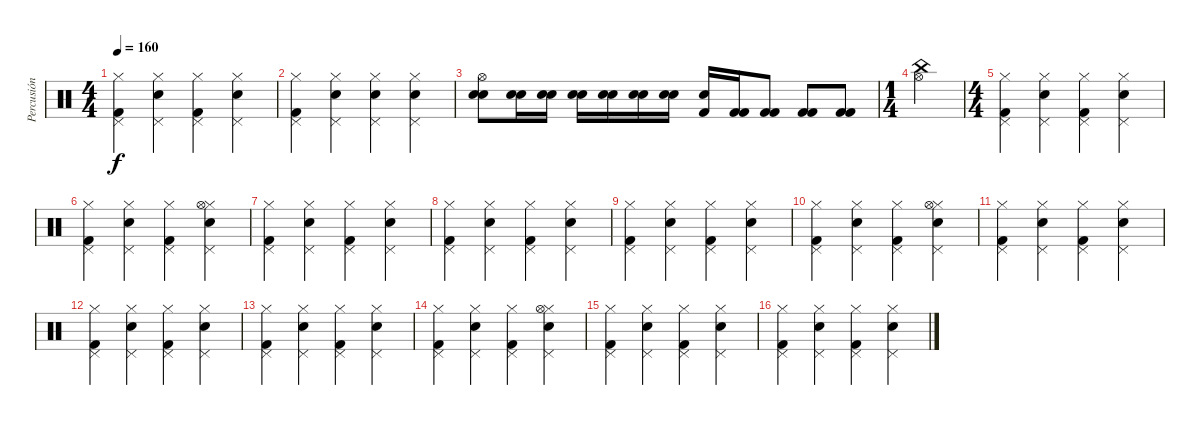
\track ("Percusión" "Percusión") {instrument percussion}
\staff {score}
\articulation defaults
\ts (4 4)
\tempo 160
\clef neutral
\ks c
("Hi-Hat (closed)" "Kick (hit) 2" "Pedal Hi-Hat (hit)").4{dy f} ("Hi-Hat (closed)" "Snare (hit) 2" "Pedal Hi-Hat (hit)").4 ("Hi-Hat (closed)" "Kick (hit) 2" "Pedal Hi-Hat (hit)").4 ("Hi-Hat (closed)" "Snare (hit) 2" "Pedal Hi-Hat (hit)").4 |
("Hi-Hat (closed)" "Kick (hit) 2" "Pedal Hi-Hat (hit)").4 ("Hi-Hat (closed)" "Snare (hit) 2" "Pedal Hi-Hat (hit)").4 ("Hi-Hat (closed)" "Snare (hit) 2" "Pedal Hi-Hat (hit)").4 ("Hi-Hat (closed)" "Snare (hit) 2" "Pedal Hi-Hat (hit)").4 |
("Hi-Hat (open)" "Electric Snare (hit)" "Electric Snare (hit)").8 ("Electric Snare (hit)" "Electric Snare (hit)").16 ("Electric Snare (hit)" "Electric Snare (hit)").16 ("Electric Snare (hit)" "Electric Snare (hit)").16 ("Electric Snare (hit)" "Electric Snare (hit)").16 ("Snare (hit) 2" "Snare (hit) 2").16 ("Snare (hit) 2" "Snare (hit) 2").16 ("Snare (hit) 2" "Kick (hit) 2").16 ("Kick (hit) 2" "Kick (hit) 2").16 ("Kick (hit) 2" "Kick (hit) 2").8 ("Kick (hit) 2" "Kick (hit) 2").8 ("Kick (hit) 2" "Kick (hit) 2").8 |
\ts (1 4)
("Hi-Hat (open)" "China (hit)").4 |
\ts (4 4)
("Hi-Hat (closed)" "Kick (hit) 2" "Pedal Hi-Hat (hit)").4 ("Hi-Hat (closed)" "Snare (hit) 2" "Pedal Hi-Hat (hit)").4 ("Hi-Hat (closed)" "Kick (hit) 2" "Pedal Hi-Hat (hit)").4 ("Hi-Hat (closed)" "Snare (hit) 2" "Pedal Hi-Hat (hit)").4 |
("Hi-Hat (closed)" "Kick (hit) 2" "Pedal Hi-Hat (hit)").4 ("Hi-Hat (closed)" "Snare (hit) 2" "Pedal Hi-Hat (hit)").4 ("Hi-Hat (closed)" "Kick (hit) 2" "Pedal Hi-Hat (hit)").4 ("Hi-Hat (closed)" "Snare (hit) 2" "Pedal Hi-Hat (hit)" "Hi-Hat (open)").4 |
("Hi-Hat (closed)" "Kick (hit) 2" "Pedal Hi-Hat (hit)").4 ("Hi-Hat (closed)" "Snare (hit) 2" "Pedal Hi-Hat (hit)").4 ("Hi-Hat (closed)" "Kick (hit) 2" "Pedal Hi-Hat (hit)").4 ("Hi-Hat (closed)" "Snare (hit) 2" "Pedal Hi-Hat (hit)").4 |
("Hi-Hat (closed)" "Kick (hit) 2" "Pedal Hi-Hat (hit)").4 ("Hi-Hat (closed)" "Snare (hit) 2" "Pedal Hi-Hat (hit)").4 ("Hi-Hat (closed)" "Kick (hit) 2" "Pedal Hi-Hat (hit)").4 ("Hi-Hat (closed)" "Snare (hit) 2" "Pedal Hi-Hat (hit)").4 |
("Hi-Hat (closed)" "Kick (hit) 2" "Pedal Hi-Hat (hit)").4 ("Hi-Hat (closed)" "Snare (hit) 2" "Pedal Hi-Hat (hit)").4 ("Hi-Hat (closed)" "Kick (hit) 2" "Pedal Hi-Hat (hit)").4 ("Hi-Hat (closed)" "Snare (hit) 2" "Pedal Hi-Hat (hit)").4 |
("Hi-Hat (closed)" "Kick (hit) 2" "Pedal Hi-Hat (hit)").4 ("Hi-Hat (closed)" "Snare (hit) 2" "Pedal Hi-Hat (hit)").4 ("Hi-Hat (closed)" "Kick (hit) 2" "Pedal Hi-Hat (hit)").4 ("Hi-Hat (closed)" "Snare (hit) 2" "Pedal Hi-Hat (hit)" "Hi-Hat (open)").4 |
("Hi-Hat (closed)" "Kick (hit) 2" "Pedal Hi-Hat (hit)").4 ("Hi-Hat (closed)" "Snare (hit) 2" "Pedal Hi-Hat (hit)").4 ("Hi-Hat (closed)" "Kick (hit) 2" "Pedal Hi-Hat (hit)").4 ("Hi-Hat (closed)" "Snare (hit) 2" "Pedal Hi-Hat (hit)").4 |
("Hi-Hat (closed)" "Kick (hit) 2" "Pedal Hi-Hat (hit)").4 ("Hi-Hat (closed)" "Snare (hit) 2" "Pedal Hi-Hat (hit)").4 ("Hi-Hat (closed)" "Kick (hit) 2" "Pedal Hi-Hat (hit)").4 ("Hi-Hat (closed)" "Snare (hit) 2" "Pedal Hi-Hat (hit)").4 |
("Hi-Hat (closed)" "Kick (hit) 2" "Pedal Hi-Hat (hit)").4 ("Hi-Hat (closed)" "Snare (hit) 2" "Pedal Hi-Hat (hit)").4 ("Hi-Hat (closed)" "Kick (hit) 2" "Pedal Hi-Hat (hit)").4 ("Hi-Hat (closed)" "Snare (hit) 2" "Pedal Hi-Hat (hit)").4 |
("Hi-Hat (closed)" "Kick (hit) 2" "Pedal Hi-Hat (hit)").4 ("Hi-Hat (closed)" "Snare (hit) 2" "Pedal Hi-Hat (hit)").4 ("Hi-Hat (closed)" "Kick (hit) 2" "Pedal Hi-Hat (hit)").4 ("Hi-Hat (closed)" "Snare (hit) 2" "Pedal Hi-Hat (hit)" "Hi-Hat (open)").4 |
("Hi-Hat (closed)" "Kick (hit) 2" "Pedal Hi-Hat (hit)").4 ("Hi-Hat (closed)" "Snare (hit) 2" "Pedal Hi-Hat (hit)").4 ("Hi-Hat (closed)" "Kick (hit) 2" "Pedal Hi-Hat (hit)").4 ("Hi-Hat (closed)" "Snare (hit) 2" "Pedal Hi-Hat (hit)").4 |
("Hi-Hat (closed)" "Kick (hit) 2" "Pedal Hi-Hat (hit)").4 ("Hi-Hat (closed)" "Snare (hit) 2" "Pedal Hi-Hat (hit)").4 ("Hi-Hat (closed)" "Kick (hit) 2" "Pedal Hi-Hat (hit)").4 ("Hi-Hat (closed)" "Snare (hit) 2" "Pedal Hi-Hat (hit)").4
